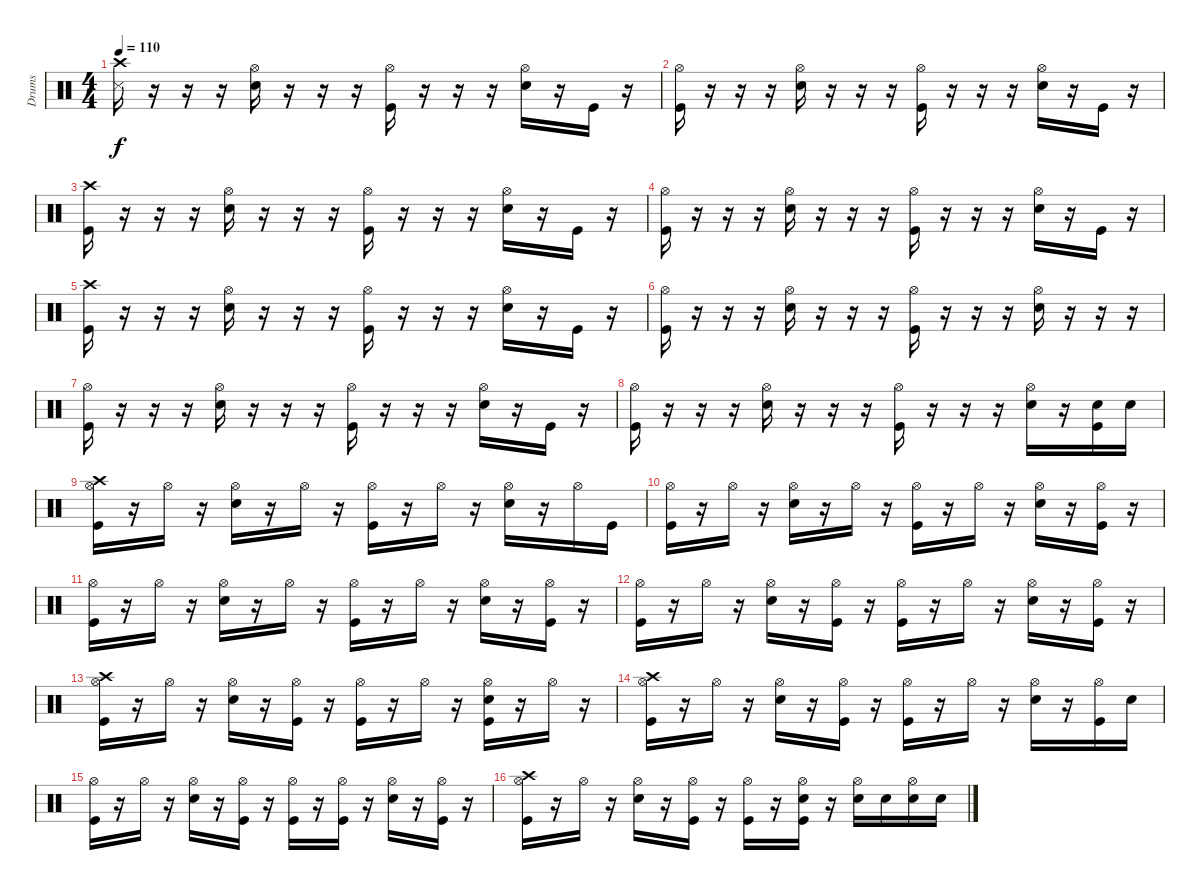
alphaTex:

\track ("Drums" "Drums") {instrument percussion}
\staff {score}
\articulation defaults
\ts (4 4)
\tempo 110
\clef neutral
\ks c
("Crash high (hit)" "Metronome (hit)").16{dy f} r.16 r.16 r.16 ("Hi-Hat (open)" "Electric Snare (hit)").16 r.16 r.16 r.16 ("Hi-Hat (open)" "Kick (hit)").16 r.16 r.16 r.16 ("Hi-Hat (open)" "Electric Snare (hit)").16 r.16 "Kick (hit)".16 r.16 |
("Hi-Hat (open)" "Kick (hit)").16 r.16 r.16 r.16 ("Hi-Hat (open)" "Electric Snare (hit)").16 r.16 r.16 r.16 ("Hi-Hat (open)" "Kick (hit)").16 r.16 r.16 r.16 ("Hi-Hat (open)" "Electric Snare (hit)").16 r.16 "Kick (hit)".16 r.16 |
("Crash high (hit)" "Kick (hit)").16 r.16 r.16 r.16 ("Hi-Hat (open)" "Electric Snare (hit)").16 r.16 r.16 r.16 ("Hi-Hat (open)" "Kick (hit)").16 r.16 r.16 r.16 ("Hi-Hat (open)" "Electric Snare (hit)").16 r.16 "Kick (hit)".16 r.16 |
("Hi-Hat (open)" "Kick (hit)").16 r.16 r.16 r.16 ("Hi-Hat (open)" "Electric Snare (hit)").16 r.16 r.16 r.16 ("Hi-Hat (open)" "Kick (hit)").16 r.16 r.16 r.16 ("Hi-Hat (open)" "Electric Snare (hit)").16 r.16 "Kick (hit)".16 r.16 |
("Crash high (hit)" "Kick (hit)").16 r.16 r.16 r.16 ("Hi-Hat (open)" "Electric Snare (hit)").16 r.16 r.16 r.16 ("Hi-Hat (open)" "Kick (hit)").16 r.16 r.16 r.16 ("Hi-Hat (open)" "Electric Snare (hit)").16 r.16 "Kick (hit)".16 r.16 |
("Hi-Hat (open)" "Kick (hit)").16 r.16 r.16 r.16 ("Hi-Hat (open)" "Electric Snare (hit)").16 r.16 r.16 r.16 ("Hi-Hat (open)" "Kick (hit)").16 r.16 r.16 r.16 ("Hi-Hat (open)" "Electric Snare (hit)").16 r.16 r.16 r.16 |
("Hi-Hat (open)" "Kick (hit)").16 r.16 r.16 r.16 ("Hi-Hat (open)" "Electric Snare (hit)").16 r.16 r.16 r.16 ("Hi-Hat (open)" "Kick (hit)").16 r.16 r.16 r.16 ("Hi-Hat (open)" "Electric Snare (hit)").16 r.16 "Kick (hit)".16 r.16 |
("Hi-Hat (open)" "Kick (hit)").16 r.16 r.16 r.16 ("Hi-Hat (open)" "Electric Snare (hit)").16 r.16 r.16 r.16 ("Hi-Hat (open)" "Kick (hit)").16 r.16 r.16 r.16 ("Hi-Hat (open)" "Electric Snare (hit)").16 r.16 ("Electric Snare (hit)" "Kick (hit)").16 "Electric Snare (hit)".16 |
("Hi-Hat (open)" "Crash high (hit)" "Kick (hit)").16 r.16 "Hi-Hat (open)".16 r.16 ("Hi-Hat (open)" "Electric Snare (hit)").16 r.16 "Hi-Hat (open)".16 r.16 ("Hi-Hat (open)" "Kick (hit)").16 r.16 "Hi-Hat (open)".16 r.16 ("Hi-Hat (open)" "Electric Snare (hit)").16 r.16 "Hi-Hat (open)".16 "Kick (hit)".16 |
("Hi-Hat (open)" "Kick (hit)").16 r.16 "Hi-Hat (open)".16 r.16 ("Hi-Hat (open)" "Electric Snare (hit)").16 r.16 "Hi-Hat (open)".16 r.16 ("Hi-Hat (open)" "Kick (hit)").16 r.16 "Hi-Hat (open)".16 r.16 ("Hi-Hat (open)" "Electric Snare (hit)").16 r.16 ("Hi-Hat (open)" "Kick (hit)").16 r.16 |
("Hi-Hat (open)" "Kick (hit)").16 r.16 "Hi-Hat (open)".16 r.16 ("Hi-Hat (open)" "Electric Snare (hit)").16 r.16 "Hi-Hat (open)".16 r.16 ("Hi-Hat (open)" "Kick (hit)").16 r.16 "Hi-Hat (open)".16 r.16 ("Hi-Hat (open)" "Electric Snare (hit)").16 r.16 ("Hi-Hat (open)" "Kick (hit)").16 r.16 |
("Hi-Hat (open)" "Kick (hit)").16 r.16 "Hi-Hat (open)".16 r.16 ("Hi-Hat (open)" "Electric Snare (hit)").16 r.16 ("Hi-Hat (open)" "Kick (hit)").16 r.16 ("Hi-Hat (open)" "Kick (hit)").16 r.16 "Hi-Hat (open)".16 r.16 ("Hi-Hat (open)" "Electric Snare (hit)").16 r.16 ("Hi-Hat (open)" "Kick (hit)").16 r.16 |
("Hi-Hat (open)" "Crash high (hit)" "Kick (hit)").16 r.16 "Hi-Hat (open)".16 r.16 ("Hi-Hat (open)" "Electric Snare (hit)").16 r.16 ("Hi-Hat (open)" "Kick (hit)").16 r.16 ("Hi-Hat (open)" "Kick (hit)").16 r.16 "Hi-Hat (open)".16 r.16 ("Hi-Hat (open)" "Electric Snare (hit)" "Kick (hit)").16 r.16 "Hi-Hat (open)".16 r.16 |
("Hi-Hat (open)" "Crash high (hit)" "Kick (hit)").16 r.16 "Hi-Hat (open)".16 r.16 ("Hi-Hat (open)" "Electric Snare (hit)").16 r.16 ("Hi-Hat (open)" "Kick (hit)").16 r.16 ("Hi-Hat (open)" "Kick (hit)").16 r.16 "Hi-Hat (open)".16 r.16 ("Hi-Hat (open)" "Electric Snare (hit)").16 r.16 ("Hi-Hat (open)" "Kick (hit)").16 "Electric Snare (hit)".16 |
("Hi-Hat (open)" "Kick (hit)").16 r.16 "Hi-Hat (open)".16 r.16 ("Hi-Hat (open)" "Electric Snare (hit)").16 r.16 ("Hi-Hat (open)" "Kick (hit)").16 r.16 ("Hi-Hat (open)" "Kick (hit)").16 r.16 ("Hi-Hat (open)" "Kick (hit)").16 r.16 ("Hi-Hat (open)" "Electric Snare (hit)").16 r.16 ("Hi-Hat (open)" "Kick (hit)").16 r.16 |
("Hi-Hat (open)" "Crash high (hit)" "Kick (hit)").16 r.16 "Hi-Hat (open)".16 r.16 ("Hi-Hat (open)" "Electric Snare (hit)").16 r.16 ("Hi-Hat (open)" "Kick (hit)").16 r.16 ("Hi-Hat (open)" "Kick (hit)").16 r.16 ("Hi-Hat (open)" "Electric Snare (hit)" "Kick (hit)").16 r.16 ("Hi-Hat (open)" "Electric Snare (hit)").16 "Electric Snare (hit)".16 ("Hi-Hat (open)" "Electric Snare (hit)").16 "Electric Snare (hit)".16
